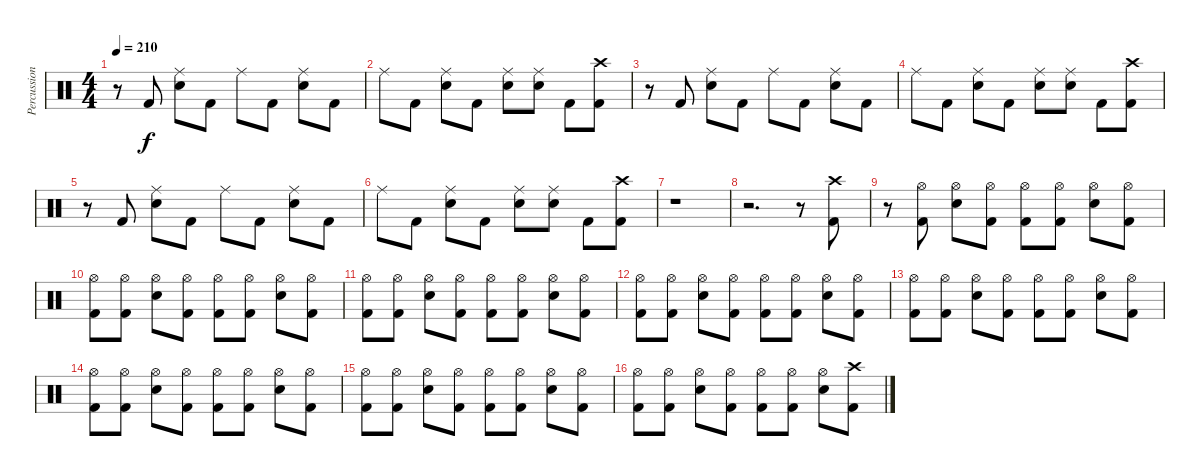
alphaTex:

\track ("Percussion" "Percussion") {instrument percussion}
\staff {score}
\articulation defaults
\ts (4 4)
\tempo 210
\clef neutral
\ks c
r.8{dy f} "Kick (hit) 2".8 ("Ride (middle)" "Electric Snare (hit)").8 "Kick (hit) 2".8 "Ride (middle)".8 "Kick (hit) 2".8 ("Ride (middle)" "Electric Snare (hit)").8 "Kick (hit) 2".8 |
"Ride (middle)".8 "Kick (hit) 2".8 ("Ride (middle)" "Electric Snare (hit)").8 "Kick (hit) 2".8 ("Ride (middle)" "Electric Snare (hit)").8 ("Ride (middle)" "Electric Snare (hit)").8 "Kick (hit) 2".8 ("Crash high (hit)" "Kick (hit) 2").8 |
r.8 "Kick (hit) 2".8 ("Ride (middle)" "Electric Snare (hit)").8 "Kick (hit) 2".8 "Ride (middle)".8 "Kick (hit) 2".8 ("Ride (middle)" "Electric Snare (hit)").8 "Kick (hit) 2".8 |
"Ride (middle)".8 "Kick (hit) 2".8 ("Ride (middle)" "Electric Snare (hit)").8 "Kick (hit) 2".8 ("Ride (middle)" "Electric Snare (hit)").8 ("Ride (middle)" "Electric Snare (hit)").8 "Kick (hit) 2".8 ("Crash high (hit)" "Kick (hit) 2").8 |
r.8 "Kick (hit) 2".8 ("Ride (middle)" "Electric Snare (hit)").8 "Kick (hit) 2".8 "Ride (middle)".8 "Kick (hit) 2".8 ("Ride (middle)" "Electric Snare (hit)").8 "Kick (hit) 2".8 |
"Ride (middle)".8 "Kick (hit) 2".8 ("Ride (middle)" "Electric Snare (hit)").8 "Kick (hit) 2".8 ("Ride (middle)" "Electric Snare (hit)").8 ("Ride (middle)" "Electric Snare (hit)").8 "Kick (hit) 2".8 ("Crash high (hit)" "Kick (hit) 2").8 |
r.1 |
r.2{d} r.8 ("Crash high (hit)" "Kick (hit) 2").8 |
r.8 ("Hi-Hat (open)" "Kick (hit) 2").8 ("Hi-Hat (open)" "Electric Snare (hit)").8 ("Hi-Hat (open)" "Kick (hit) 2").8 ("Hi-Hat (open)" "Kick (hit) 2").8 ("Hi-Hat (open)" "Kick (hit) 2").8 ("Hi-Hat (open)" "Electric Snare (hit)").8 ("Hi-Hat (open)" "Kick (hit) 2").8 |
("Hi-Hat (open)" "Kick (hit) 2").8 ("Hi-Hat (open)" "Kick (hit) 2").8 ("Hi-Hat (open)" "Electric Snare (hit)").8 ("Hi-Hat (open)" "Kick (hit) 2").8 ("Hi-Hat (open)" "Kick (hit) 2").8 ("Hi-Hat (open)" "Kick (hit) 2").8 ("Hi-Hat (open)" "Electric Snare (hit)").8 ("Hi-Hat (open)" "Kick (hit) 2").8 |
("Hi-Hat (open)" "Kick (hit) 2").8 ("Hi-Hat (open)" "Kick (hit) 2").8 ("Hi-Hat (open)" "Electric Snare (hit)").8 ("Hi-Hat (open)" "Kick (hit) 2").8 ("Hi-Hat (open)" "Kick (hit) 2").8 ("Hi-Hat (open)" "Kick (hit) 2").8 ("Hi-Hat (open)" "Electric Snare (hit)").8 ("Hi-Hat (open)" "Kick (hit) 2").8 |
("Hi-Hat (open)" "Kick (hit) 2").8 ("Hi-Hat (open)" "Kick (hit) 2").8 ("Hi-Hat (open)" "Electric Snare (hit)").8 ("Hi-Hat (open)" "Kick (hit) 2").8 ("Hi-Hat (open)" "Kick (hit) 2").8 ("Hi-Hat (open)" "Kick (hit) 2").8 ("Hi-Hat (open)" "Electric Snare (hit)").8 ("Hi-Hat (open)" "Kick (hit) 2").8 |
("Hi-Hat (open)" "Kick (hit) 2").8 ("Hi-Hat (open)" "Kick (hit) 2").8 ("Hi-Hat (open)" "Electric Snare (hit)").8 ("Hi-Hat (open)" "Kick (hit) 2").8 ("Hi-Hat (open)" "Kick (hit) 2").8 ("Hi-Hat (open)" "Kick (hit) 2").8 ("Hi-Hat (open)" "Electric Snare (hit)").8 ("Hi-Hat (open)" "Kick (hit) 2").8 |
("Hi-Hat (open)" "Kick (hit) 2").8 ("Hi-Hat (open)" "Kick (hit) 2").8 ("Hi-Hat (open)" "Electric Snare (hit)").8 ("Hi-Hat (open)" "Kick (hit) 2").8 ("Hi-Hat (open)" "Kick (hit) 2").8 ("Hi-Hat (open)" "Kick (hit) 2").8 ("Hi-Hat (open)" "Electric Snare (hit)").8 ("Hi-Hat (open)" "Kick (hit) 2").8 |
("Hi-Hat (open)" "Kick (hit) 2").8 ("Hi-Hat (open)" "Kick (hit) 2").8 ("Hi-Hat (open)" "Electric Snare (hit)").8 ("Hi-Hat (open)" "Kick (hit) 2").8 ("Hi-Hat (open)" "Kick (hit) 2").8 ("Hi-Hat (open)" "Kick (hit) 2").8 ("Hi-Hat (open)" "Electric Snare (hit)").8 ("Hi-Hat (open)" "Kick (hit) 2").8 |
("Hi-Hat (open)" "Kick (hit) 2").8 ("Hi-Hat (open)" "Kick (hit) 2").8 ("Hi-Hat (open)" "Electric Snare (hit)").8 ("Hi-Hat (open)" "Kick (hit) 2").8 ("Hi-Hat (open)" "Kick (hit) 2").8 ("Hi-Hat (open)" "Kick (hit) 2").8 ("Hi-Hat (open)" "Electric Snare (hit)").8 ("Crash high (hit)" "Kick (hit) 2").8
